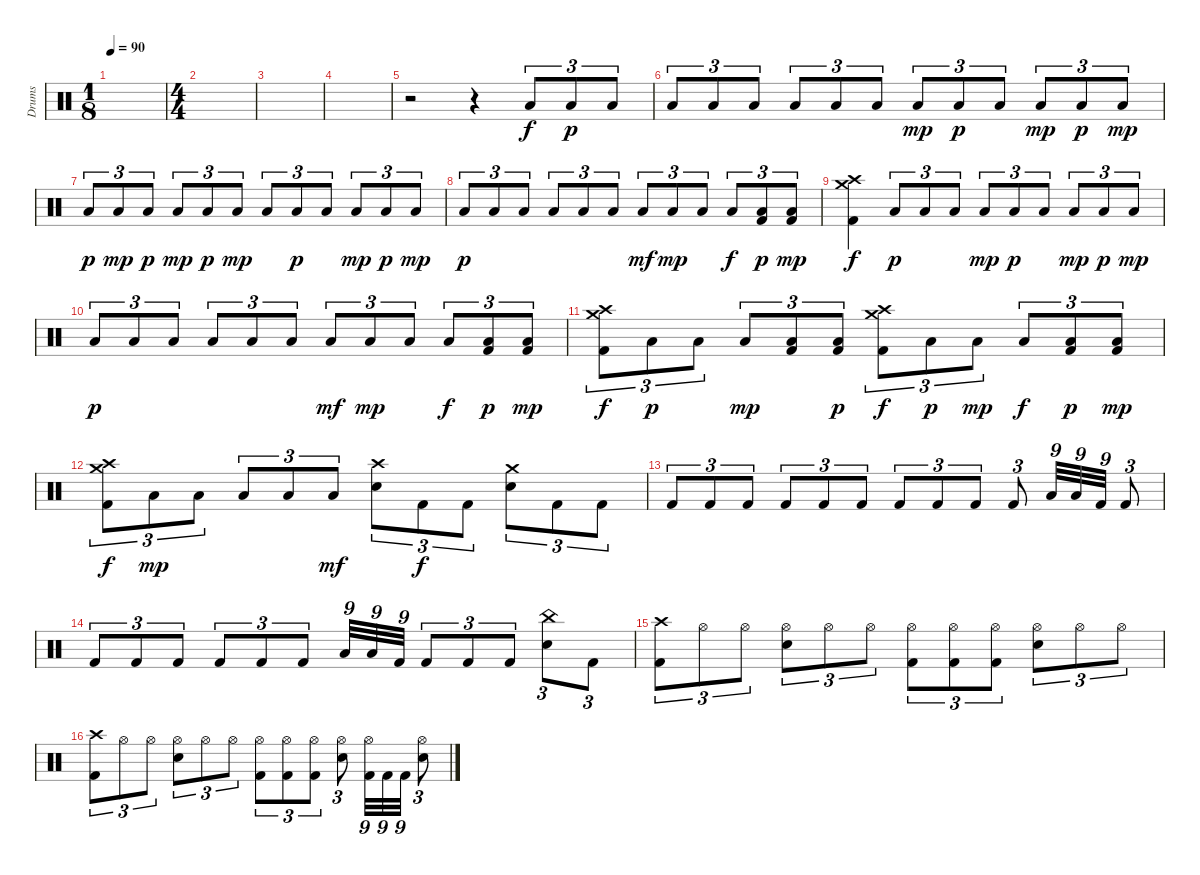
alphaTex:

\track ("Drums" "Drums") {instrument percussion}
\staff {score}
\articulation defaults
\ts (1 8)
\tempo 90
\clef neutral
\ks c
|
\ts (4 4)
|
|
|
r.2 r.4 "Low Floor Tom (hit)".8{tu (3 2)} "Low Floor Tom (hit)".8{tu (3 2) dy p} "Low Floor Tom (hit)".8{tu (3 2)} |
"Low Floor Tom (hit)".8{tu (3 2)} "Low Floor Tom (hit)".8{tu (3 2)} "Low Floor Tom (hit)".8{tu (3 2)} "Low Floor Tom (hit)".8{tu (3 2)} "Low Floor Tom (hit)".8{tu (3 2)} "Low Floor Tom (hit)".8{tu (3 2)} "Low Floor Tom (hit)".8{tu (3 2) dy mp} "Low Floor Tom (hit)".8{tu (3 2) dy p} "Low Floor Tom (hit)".8{tu (3 2)} "Low Floor Tom (hit)".8{tu (3 2) dy mp} "Low Floor Tom (hit)".8{tu (3 2) dy p} "Low Floor Tom (hit)".8{tu (3 2) dy mp} |
"Low Floor Tom (hit)".8{tu (3 2) dy p} "Low Floor Tom (hit)".8{tu (3 2) dy mp} "Low Floor Tom (hit)".8{tu (3 2) dy p} "Low Floor Tom (hit)".8{tu (3 2) dy mp} "Low Floor Tom (hit)".8{tu (3 2) dy p} "Low Floor Tom (hit)".8{tu (3 2) dy mp} "Low Floor Tom (hit)".8{tu (3 2)} "Low Floor Tom (hit)".8{tu (3 2) dy p} "Low Floor Tom (hit)".8{tu (3 2)} "Low Floor Tom (hit)".8{tu (3 2) dy mp} "Low Floor Tom (hit)".8{tu (3 2) dy p} "Low Floor Tom (hit)".8{tu (3 2) dy mp} |
"Low Floor Tom (hit)".8{tu (3 2) dy p} "Low Floor Tom (hit)".8{tu (3 2)} "Low Floor Tom (hit)".8{tu (3 2)} "Low Floor Tom (hit)".8{tu (3 2)} "Low Floor Tom (hit)".8{tu (3 2)} "Low Floor Tom (hit)".8{tu (3 2)} "Low Floor Tom (hit)".8{tu (3 2) dy mf} "Low Floor Tom (hit)".8{tu (3 2) dy mp} "Low Floor Tom (hit)".8{tu (3 2)} "Low Floor Tom (hit)".8{tu (3 2) dy f} ("Low Floor Tom (hit)" "Kick (hit) 2").8{tu (3 2) dy p} ("Low Floor Tom (hit)" "Kick (hit) 2").8{tu (3 2) dy mp} |
("Crash high (hit)" "Crash medium (hit)" "Kick (hit) 2").4{dy f} "Low Floor Tom (hit)".8{tu (3 2) dy p} "Low Floor Tom (hit)".8{tu (3 2)} "Low Floor Tom (hit)".8{tu (3 2)} "Low Floor Tom (hit)".8{tu (3 2) dy mp} "Low Floor Tom (hit)".8{tu (3 2) dy p} "Low Floor Tom (hit)".8{tu (3 2)} "Low Floor Tom (hit)".8{tu (3 2) dy mp} "Low Floor Tom (hit)".8{tu (3 2) dy p} "Low Floor Tom (hit)".8{tu (3 2) dy mp} |
"Low Floor Tom (hit)".8{tu (3 2) dy p} "Low Floor Tom (hit)".8{tu (3 2)} "Low Floor Tom (hit)".8{tu (3 2)} "Low Floor Tom (hit)".8{tu (3 2)} "Low Floor Tom (hit)".8{tu (3 2)} "Low Floor Tom (hit)".8{tu (3 2)} "Low Floor Tom (hit)".8{tu (3 2) dy mf} "Low Floor Tom (hit)".8{tu (3 2) dy mp} "Low Floor Tom (hit)".8{tu (3 2)} "Low Floor Tom (hit)".8{tu (3 2) dy f} ("Low Floor Tom (hit)" "Kick (hit) 2").8{tu (3 2) dy p} ("Low Floor Tom (hit)" "Kick (hit) 2").8{tu (3 2) dy mp} |
("Crash high (hit)" "Crash medium (hit)" "Kick (hit) 2").8{tu (3 2) dy f} "Low Floor Tom (hit)".8{tu (3 2) dy p} "Low Floor Tom (hit)".8{tu (3 2)} "Low Floor Tom (hit)".8{tu (3 2) dy mp} ("Low Floor Tom (hit)" "Kick (hit) 2").8{tu (3 2)} ("Low Floor Tom (hit)" "Kick (hit) 2").8{tu (3 2) dy p} ("Crash high (hit)" "Crash medium (hit)" "Kick (hit) 2").8{tu (3 2) dy f} "Low Floor Tom (hit)".8{tu (3 2) dy p} "Low Floor Tom (hit)".8{tu (3 2) dy mp} "Low Floor Tom (hit)".8{tu (3 2) dy f} ("Low Floor Tom (hit)" "Kick (hit) 2").8{tu (3 2) dy p} ("Low Floor Tom (hit)" "Kick (hit) 2").8{tu (3 2) dy mp} |
("Crash high (hit)" "Crash medium (hit)" "Kick (hit) 2").8{tu (3 2) dy f} "Low Floor Tom (hit)".8{tu (3 2) dy mp} "Low Floor Tom (hit)".8{tu (3 2)} "Low Floor Tom (hit)".8{tu (3 2)} "Low Floor Tom (hit)".8{tu (3 2)} "Low Floor Tom (hit)".8{tu (3 2) dy mf} ("Crash high (hit)" "Electric Snare (hit)").8{tu (3 2)} "Kick (hit) 2".8{tu (3 2) dy f} "Kick (hit) 2".8{tu (3 2)} ("Crash medium (hit)" "Electric Snare (hit)").8{tu (3 2)} "Kick (hit) 2".8{tu (3 2)} "Kick (hit) 2".8{tu (3 2)} |
"Kick (hit) 2".8{tu (3 2)} "Kick (hit) 2".8{tu (3 2)} "Kick (hit) 2".8{tu (3 2)} "Kick (hit) 2".8{tu (3 2)} "Kick (hit) 2".8{tu (3 2)} "Kick (hit) 2".8{tu (3 2)} "Kick (hit) 2".8{tu (3 2)} "Kick (hit) 2".8{tu (3 2)} "Kick (hit) 2".8{tu (3 2)} "Kick (hit) 2".8{tu (3 2)} "Low Tom (hit)".32{tu (9 8)} "Low Floor Tom (hit)".32{tu (9 8)} "Kick (hit) 2".32{tu (9 8)} "Kick (hit) 2".8{tu (3 2)} |
"Kick (hit) 2".8{tu (3 2)} "Kick (hit) 2".8{tu (3 2)} "Kick (hit) 2".8{tu (3 2)} "Kick (hit) 2".8{tu (3 2)} "Kick (hit) 2".8{tu (3 2)} "Kick (hit) 2".8{tu (3 2)} "Low Tom (hit)".32{tu (9 8)} "Low Floor Tom (hit)".32{tu (9 8)} "Kick (hit) 2".32{tu (9 8)} "Kick (hit) 2".8{tu (3 2)} "Kick (hit) 2".8{tu (3 2)} "Kick (hit) 2".8{tu (3 2)} ("China (hit)" "Electric Snare (hit)").8{tu (3 2)} "Kick (hit) 2".8{tu (3 2)} |
("Crash high (hit)" "Kick (hit) 2").8{tu (3 2)} "Hi-Hat (open)".8{tu (3 2)} "Hi-Hat (open)".8{tu (3 2)} ("Hi-Hat (open)" "Electric Snare (hit)").8{tu (3 2)} "Hi-Hat (open)".8{tu (3 2)} "Hi-Hat (open)".8{tu (3 2)} ("Hi-Hat (open)" "Kick (hit) 2").8{tu (3 2)} ("Hi-Hat (open)" "Kick (hit) 2").8{tu (3 2)} ("Hi-Hat (open)" "Kick (hit) 2").8{tu (3 2)} ("Hi-Hat (open)" "Electric Snare (hit)").8{tu (3 2)} "Hi-Hat (open)".8{tu (3 2)} "Hi-Hat (open)".8{tu (3 2)} |
("Crash high (hit)" "Kick (hit) 2").8{tu (3 2)} "Hi-Hat (open)".8{tu (3 2)} "Hi-Hat (open)".8{tu (3 2)} ("Hi-Hat (open)" "Electric Snare (hit)").8{tu (3 2)} "Hi-Hat (open)".8{tu (3 2)} "Hi-Hat (open)".8{tu (3 2)} ("Hi-Hat (open)" "Kick (hit) 2").8{tu (3 2)} ("Hi-Hat (open)" "Kick (hit) 2").8{tu (3 2)} ("Hi-Hat (open)" "Kick (hit) 2").8{tu (3 2)} ("Hi-Hat (open)" "Electric Snare (hit)").8{tu (3 2)} ("Hi-Hat (open)" "Kick (hit) 2").32{tu (9 8)} "Kick (hit) 2".32{tu (9 8)} "Kick (hit) 2".32{tu (9 8)} ("Hi-Hat (open)" "Electric Snare (hit)").8{tu (3 2)}
